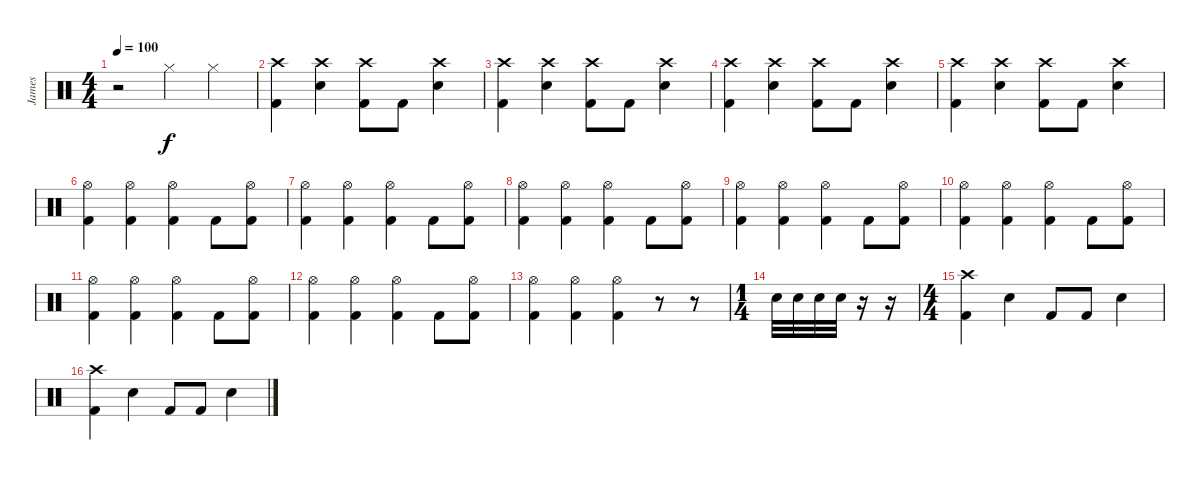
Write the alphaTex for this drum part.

\track ("James" "James") {instrument percussion}
\staff {score}
\articulation defaults
\ts (4 4)
\tempo 100
\clef neutral
\ks c
r.2{dy f} "Hi-Hat (closed)".4 "Hi-Hat (closed)".4 |
("Kick (hit) 2" "Crash high (hit)").4 ("Electric Snare (hit)" "Crash high (hit)").4 ("Kick (hit) 2" "Crash high (hit)").8 "Kick (hit) 2".8 ("Electric Snare (hit)" "Crash high (hit)").4 |
("Kick (hit) 2" "Crash high (hit)").4 ("Electric Snare (hit)" "Crash high (hit)").4 ("Kick (hit) 2" "Crash high (hit)").8 "Kick (hit) 2".8 ("Electric Snare (hit)" "Crash high (hit)").4 |
("Kick (hit) 2" "Crash high (hit)").4 ("Electric Snare (hit)" "Crash high (hit)").4 ("Kick (hit) 2" "Crash high (hit)").8 "Kick (hit) 2".8 ("Electric Snare (hit)" "Crash high (hit)").4 |
("Kick (hit) 2" "Crash high (hit)").4 ("Electric Snare (hit)" "Crash high (hit)").4 ("Kick (hit) 2" "Crash high (hit)").8 "Kick (hit) 2".8 ("Electric Snare (hit)" "Crash high (hit)").4 |
("Kick (hit) 2" "Hi-Hat (open)").4 ("Kick (hit) 2" "Hi-Hat (open)").4 ("Kick (hit) 2" "Hi-Hat (open)").4 "Kick (hit) 2".8 ("Kick (hit) 2" "Hi-Hat (open)").8 |
("Kick (hit) 2" "Hi-Hat (open)").4 ("Kick (hit) 2" "Hi-Hat (open)").4 ("Kick (hit) 2" "Hi-Hat (open)").4 "Kick (hit) 2".8 ("Kick (hit) 2" "Hi-Hat (open)").8 |
("Kick (hit) 2" "Hi-Hat (open)").4 ("Kick (hit) 2" "Hi-Hat (open)").4 ("Kick (hit) 2" "Hi-Hat (open)").4 "Kick (hit) 2".8 ("Kick (hit) 2" "Hi-Hat (open)").8 |
("Kick (hit) 2" "Hi-Hat (open)").4 ("Kick (hit) 2" "Hi-Hat (open)").4 ("Kick (hit) 2" "Hi-Hat (open)").4 "Kick (hit) 2".8 ("Kick (hit) 2" "Hi-Hat (open)").8 |
("Kick (hit) 2" "Hi-Hat (open)").4 ("Kick (hit) 2" "Hi-Hat (open)").4 ("Kick (hit) 2" "Hi-Hat (open)").4 "Kick (hit) 2".8 ("Kick (hit) 2" "Hi-Hat (open)").8 |
("Kick (hit) 2" "Hi-Hat (open)").4 ("Kick (hit) 2" "Hi-Hat (open)").4 ("Kick (hit) 2" "Hi-Hat (open)").4 "Kick (hit) 2".8 ("Kick (hit) 2" "Hi-Hat (open)").8 |
("Kick (hit) 2" "Hi-Hat (open)").4 ("Kick (hit) 2" "Hi-Hat (open)").4 ("Kick (hit) 2" "Hi-Hat (open)").4 "Kick (hit) 2".8 ("Kick (hit) 2" "Hi-Hat (open)").8 |
("Kick (hit) 2" "Hi-Hat (open)").4 ("Kick (hit) 2" "Hi-Hat (open)").4 ("Kick (hit) 2" "Hi-Hat (open)").4 r.8 r.8 |
\ts (1 4)
"Electric Snare (hit)".32 "Electric Snare (hit)".32 "Electric Snare (hit)".32 "Electric Snare (hit)".32 r.16 r.16 |
\ts (4 4)
("Kick (hit) 2" "Crash high (hit)").4 "Electric Snare (hit)".4 "Kick (hit) 2".8 "Kick (hit) 2".8 "Electric Snare (hit)".4 |
("Kick (hit) 2" "Crash high (hit)").4 "Electric Snare (hit)".4 "Kick (hit) 2".8 "Kick (hit) 2".8 "Electric Snare (hit)".4
